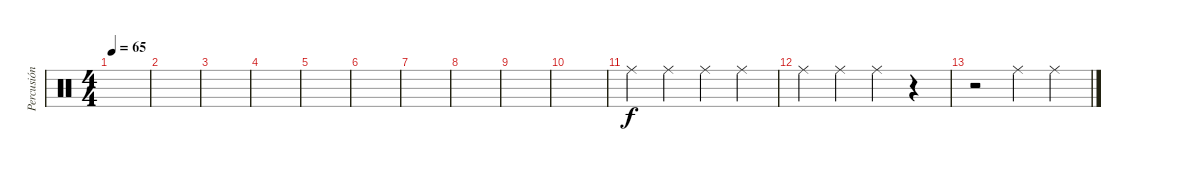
\track ("Percusión" "Percusión") {instrument percussion}
\staff {score}
\articulation defaults
\ts (4 4)
\tempo 65
\clef neutral
\ks c
|
|
|
|
|
|
|
|
|
|
"Ride (middle)".4{volume 12} "Ride (middle)".4 "Ride (middle)".4 "Ride (middle)".4 |
"Ride (middle)".4 "Ride (middle)".4 "Ride (middle)".4 r.4 |
r.2 "Ride (middle)".4 "Ride (middle)".4
